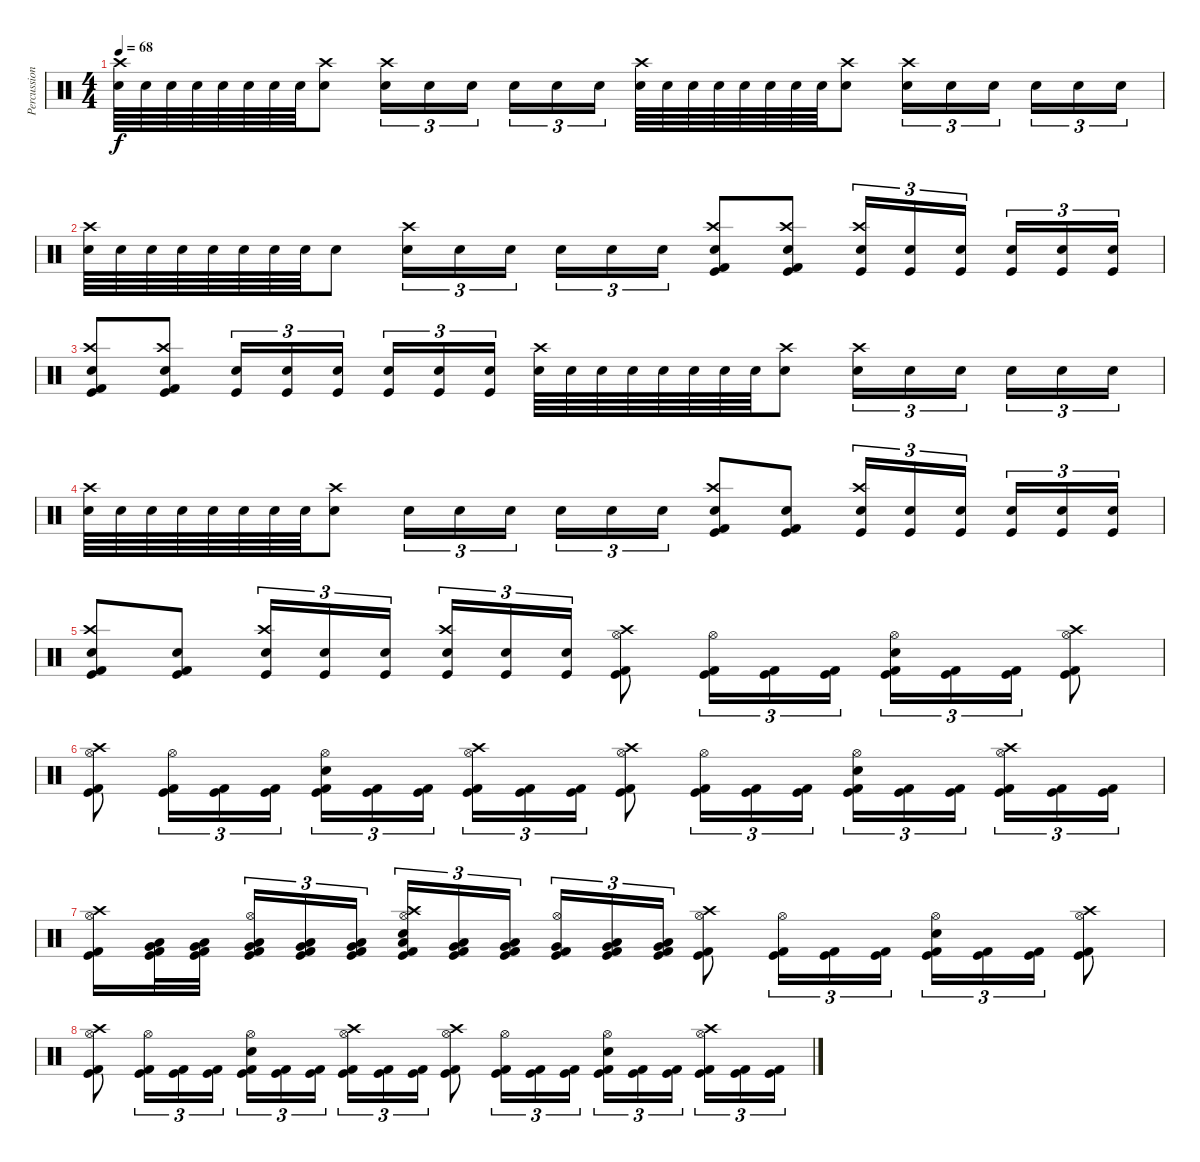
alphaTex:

\track ("Percussion" "Percussion") {instrument percussion}
\staff {score}
\articulation defaults
\ts (4 4)
\tempo 68
\clef neutral
\ks c
("Snare (hit) 2" "Crash high (hit)").64{dy f} "Snare (hit) 2".64 "Snare (hit) 2".64 "Snare (hit) 2".64 "Snare (hit) 2".64 "Snare (hit) 2".64 "Snare (hit) 2".64 "Snare (hit) 2".64 ("Snare (hit) 2" "Crash high (hit)").8 ("Snare (hit) 2" "Crash high (hit)").16{tu (3 2)} "Snare (hit) 2".16{tu (3 2)} "Snare (hit) 2".16{tu (3 2)} "Snare (hit) 2".16{tu (3 2)} "Snare (hit) 2".16{tu (3 2)} "Snare (hit) 2".16{tu (3 2)} ("Snare (hit) 2" "Crash high (hit)").64 "Snare (hit) 2".64 "Snare (hit) 2".64 "Snare (hit) 2".64 "Snare (hit) 2".64 "Snare (hit) 2".64 "Snare (hit) 2".64 "Snare (hit) 2".64 ("Snare (hit) 2" "Crash high (hit)").8 ("Snare (hit) 2" "Crash high (hit)").16{tu (3 2)} "Snare (hit) 2".16{tu (3 2)} "Snare (hit) 2".16{tu (3 2)} "Snare (hit) 2".16{tu (3 2)} "Snare (hit) 2".16{tu (3 2)} "Snare (hit) 2".16{tu (3 2)} |
("Snare (hit) 2" "Crash high (hit)").64 "Snare (hit) 2".64 "Snare (hit) 2".64 "Snare (hit) 2".64 "Snare (hit) 2".64 "Snare (hit) 2".64 "Snare (hit) 2".64 "Snare (hit) 2".64 "Snare (hit) 2".8 ("Snare (hit) 2" "Crash high (hit)").16{tu (3 2)} "Snare (hit) 2".16{tu (3 2)} "Snare (hit) 2".16{tu (3 2)} "Snare (hit) 2".16{tu (3 2)} "Snare (hit) 2".16{tu (3 2)} "Snare (hit) 2".16{tu (3 2)} ("Kick (hit)" "Kick (hit) 2" "Snare (hit) 2" "Crash high (hit)").8 ("Kick (hit)" "Kick (hit) 2" "Snare (hit) 2" "Crash high (hit)").8 ("Kick (hit)" "Snare (hit) 2" "Crash high (hit)").16{tu (3 2)} ("Kick (hit)" "Snare (hit) 2").16{tu (3 2)} ("Kick (hit)" "Snare (hit) 2").16{tu (3 2)} ("Kick (hit)" "Snare (hit) 2").16{tu (3 2)} ("Kick (hit)" "Snare (hit) 2").16{tu (3 2)} ("Kick (hit)" "Snare (hit) 2").16{tu (3 2)} |
("Kick (hit)" "Kick (hit) 2" "Snare (hit) 2" "Crash high (hit)").8 ("Kick (hit)" "Kick (hit) 2" "Snare (hit) 2" "Crash high (hit)").8 ("Kick (hit)" "Snare (hit) 2").16{tu (3 2)} ("Kick (hit)" "Snare (hit) 2").16{tu (3 2)} ("Kick (hit)" "Snare (hit) 2").16{tu (3 2)} ("Kick (hit)" "Snare (hit) 2").16{tu (3 2)} ("Kick (hit)" "Snare (hit) 2").16{tu (3 2)} ("Kick (hit)" "Snare (hit) 2").16{tu (3 2)} ("Snare (hit) 2" "Crash high (hit)").64 "Snare (hit) 2".64 "Snare (hit) 2".64 "Snare (hit) 2".64 "Snare (hit) 2".64 "Snare (hit) 2".64 "Snare (hit) 2".64 "Snare (hit) 2".64 ("Snare (hit) 2" "Crash high (hit)").8 ("Snare (hit) 2" "Crash high (hit)").16{tu (3 2)} "Snare (hit) 2".16{tu (3 2)} "Snare (hit) 2".16{tu (3 2)} "Snare (hit) 2".16{tu (3 2)} "Snare (hit) 2".16{tu (3 2)} "Snare (hit) 2".16{tu (3 2)} |
("Snare (hit) 2" "Crash high (hit)").64 "Snare (hit) 2".64 "Snare (hit) 2".64 "Snare (hit) 2".64 "Snare (hit) 2".64 "Snare (hit) 2".64 "Snare (hit) 2".64 "Snare (hit) 2".64 ("Snare (hit) 2" "Crash high (hit)").8 "Snare (hit) 2".16{tu (3 2)} "Snare (hit) 2".16{tu (3 2)} "Snare (hit) 2".16{tu (3 2)} "Snare (hit) 2".16{tu (3 2)} "Snare (hit) 2".16{tu (3 2)} "Snare (hit) 2".16{tu (3 2)} ("Kick (hit)" "Kick (hit) 2" "Snare (hit) 2" "Crash high (hit)").8 ("Kick (hit)" "Kick (hit) 2" "Snare (hit) 2").8 ("Kick (hit)" "Snare (hit) 2" "Crash high (hit)").16{tu (3 2)} ("Kick (hit)" "Snare (hit) 2").16{tu (3 2)} ("Kick (hit)" "Snare (hit) 2").16{tu (3 2)} ("Kick (hit)" "Snare (hit) 2").16{tu (3 2)} ("Kick (hit)" "Snare (hit) 2").16{tu (3 2)} ("Kick (hit)" "Snare (hit) 2").16{tu (3 2)} |
\section ("" "")
("Kick (hit)" "Kick (hit) 2" "Snare (hit) 2" "Crash high (hit)").8 ("Kick (hit)" "Kick (hit) 2" "Snare (hit) 2").8 ("Kick (hit)" "Snare (hit) 2" "Crash high (hit)").16{tu (3 2)} ("Kick (hit)" "Snare (hit) 2").16{tu (3 2)} ("Kick (hit)" "Snare (hit) 2").16{tu (3 2)} ("Kick (hit)" "Snare (hit) 2" "Crash high (hit)").16{tu (3 2)} ("Kick (hit)" "Snare (hit) 2").16{tu (3 2)} ("Kick (hit)" "Snare (hit) 2").16{tu (3 2)} ("Kick (hit)" "Kick (hit) 2" "Hi-Hat (open)" "Crash high (hit)").8 ("Kick (hit)" "Kick (hit) 2" "Hi-Hat (open)").16{tu (3 2)} ("Kick (hit)" "Kick (hit) 2").16{tu (3 2)} ("Kick (hit)" "Kick (hit) 2").16{tu (3 2)} ("Kick (hit)" "Kick (hit) 2" "Snare (hit) 2" "Hi-Hat (open)").16{tu (3 2)} ("Kick (hit)" "Kick (hit) 2").16{tu (3 2)} ("Kick (hit)" "Kick (hit) 2").16{tu (3 2)} ("Kick (hit)" "Kick (hit) 2" "Hi-Hat (open)" "Crash high (hit)").8 |
("Kick (hit)" "Kick (hit) 2" "Hi-Hat (open)" "Crash high (hit)").8 ("Kick (hit)" "Kick (hit) 2" "Hi-Hat (open)").16{tu (3 2)} ("Kick (hit)" "Kick (hit) 2").16{tu (3 2)} ("Kick (hit)" "Kick (hit) 2").16{tu (3 2)} ("Kick (hit)" "Kick (hit) 2" "Snare (hit) 2" "Hi-Hat (open)").16{tu (3 2)} ("Kick (hit)" "Kick (hit) 2").16{tu (3 2)} ("Kick (hit)" "Kick (hit) 2").16{tu (3 2)} ("Kick (hit)" "Kick (hit) 2" "Hi-Hat (open)" "Crash high (hit)").16{tu (3 2)} ("Kick (hit)" "Kick (hit) 2").16{tu (3 2)} ("Kick (hit)" "Kick (hit) 2").16{tu (3 2)} ("Kick (hit)" "Kick (hit) 2" "Hi-Hat (open)" "Crash high (hit)").8 ("Kick (hit)" "Kick (hit) 2" "Hi-Hat (open)").16{tu (3 2)} ("Kick (hit)" "Kick (hit) 2").16{tu (3 2)} ("Kick (hit)" "Kick (hit) 2").16{tu (3 2)} ("Kick (hit)" "Kick (hit) 2" "Snare (hit) 2" "Hi-Hat (open)").16{tu (3 2)} ("Kick (hit)" "Kick (hit) 2").16{tu (3 2)} ("Kick (hit)" "Kick (hit) 2").16{tu (3 2)} ("Kick (hit)" "Kick (hit) 2" "Hi-Hat (open)" "Crash high (hit)").16{tu (3 2)} ("Kick (hit)" "Kick (hit) 2").16{tu (3 2)} ("Kick (hit)" "Kick (hit) 2").16{tu (3 2)} |
("Kick (hit)" "Kick (hit) 2" "Hi-Hat (open)" "Crash high (hit)").16 ("Kick (hit)" "Kick (hit) 2" "Low Floor Tom (hit)" "Very Low Tom (hit)").32 ("Kick (hit)" "Kick (hit) 2" "Low Floor Tom (hit)" "Very Low Tom (hit)").32 ("Kick (hit)" "Kick (hit) 2" "Low Floor Tom (hit)" "Very Low Tom (hit)" "Hi-Hat (open)").16{tu (3 2)} ("Kick (hit)" "Kick (hit) 2" "Low Floor Tom (hit)" "Very Low Tom (hit)").16{tu (3 2)} ("Kick (hit)" "Kick (hit) 2" "Low Floor Tom (hit)" "Very Low Tom (hit)").16{tu (3 2)} ("Kick (hit)" "Kick (hit) 2" "Snare (hit) 2" "Low Floor Tom (hit)" "Hi-Hat (open)" "Crash high (hit)").16{tu (3 2)} ("Kick (hit)" "Kick (hit) 2" "Low Floor Tom (hit)" "Very Low Tom (hit)").16{tu (3 2)} ("Kick (hit)" "Kick (hit) 2" "Low Floor Tom (hit)" "Very Low Tom (hit)").16{tu (3 2)} ("Kick (hit)" "Kick (hit) 2" "Very Low Tom (hit)" "Hi-Hat (open)").16{tu (3 2)} ("Kick (hit)" "Kick (hit) 2" "Low Floor Tom (hit)" "Very Low Tom (hit)").16{tu (3 2)} ("Kick (hit)" "Kick (hit) 2" "Low Floor Tom (hit)" "Very Low Tom (hit)").16{tu (3 2)} ("Kick (hit)" "Kick (hit) 2" "Hi-Hat (open)" "Crash high (hit)").8 ("Kick (hit)" "Kick (hit) 2" "Hi-Hat (open)").16{tu (3 2)} ("Kick (hit)" "Kick (hit) 2").16{tu (3 2)} ("Kick (hit)" "Kick (hit) 2").16{tu (3 2)} ("Kick (hit)" "Kick (hit) 2" "Snare (hit) 2" "Hi-Hat (open)").16{tu (3 2)} ("Kick (hit)" "Kick (hit) 2").16{tu (3 2)} ("Kick (hit)" "Kick (hit) 2").16{tu (3 2)} ("Kick (hit)" "Kick (hit) 2" "Hi-Hat (open)" "Crash high (hit)").8 |
("Kick (hit)" "Kick (hit) 2" "Hi-Hat (open)" "Crash high (hit)").8 ("Kick (hit)" "Kick (hit) 2" "Hi-Hat (open)").16{tu (3 2)} ("Kick (hit)" "Kick (hit) 2").16{tu (3 2)} ("Kick (hit)" "Kick (hit) 2").16{tu (3 2)} ("Kick (hit)" "Kick (hit) 2" "Snare (hit) 2" "Hi-Hat (open)").16{tu (3 2)} ("Kick (hit)" "Kick (hit) 2").16{tu (3 2)} ("Kick (hit)" "Kick (hit) 2").16{tu (3 2)} ("Kick (hit)" "Kick (hit) 2" "Hi-Hat (open)" "Crash high (hit)").16{tu (3 2)} ("Kick (hit)" "Kick (hit) 2").16{tu (3 2)} ("Kick (hit)" "Kick (hit) 2").16{tu (3 2)} ("Kick (hit)" "Kick (hit) 2" "Hi-Hat (open)" "Crash high (hit)").8 ("Kick (hit)" "Kick (hit) 2" "Hi-Hat (open)").16{tu (3 2)} ("Kick (hit)" "Kick (hit) 2").16{tu (3 2)} ("Kick (hit)" "Kick (hit) 2").16{tu (3 2)} ("Kick (hit)" "Kick (hit) 2" "Snare (hit) 2" "Hi-Hat (open)").16{tu (3 2)} ("Kick (hit)" "Kick (hit) 2").16{tu (3 2)} ("Kick (hit)" "Kick (hit) 2").16{tu (3 2)} ("Kick (hit)" "Kick (hit) 2" "Hi-Hat (open)" "Crash high (hit)").16{tu (3 2)} ("Kick (hit)" "Kick (hit) 2").16{tu (3 2)} ("Kick (hit)" "Kick (hit) 2").16{tu (3 2)}
